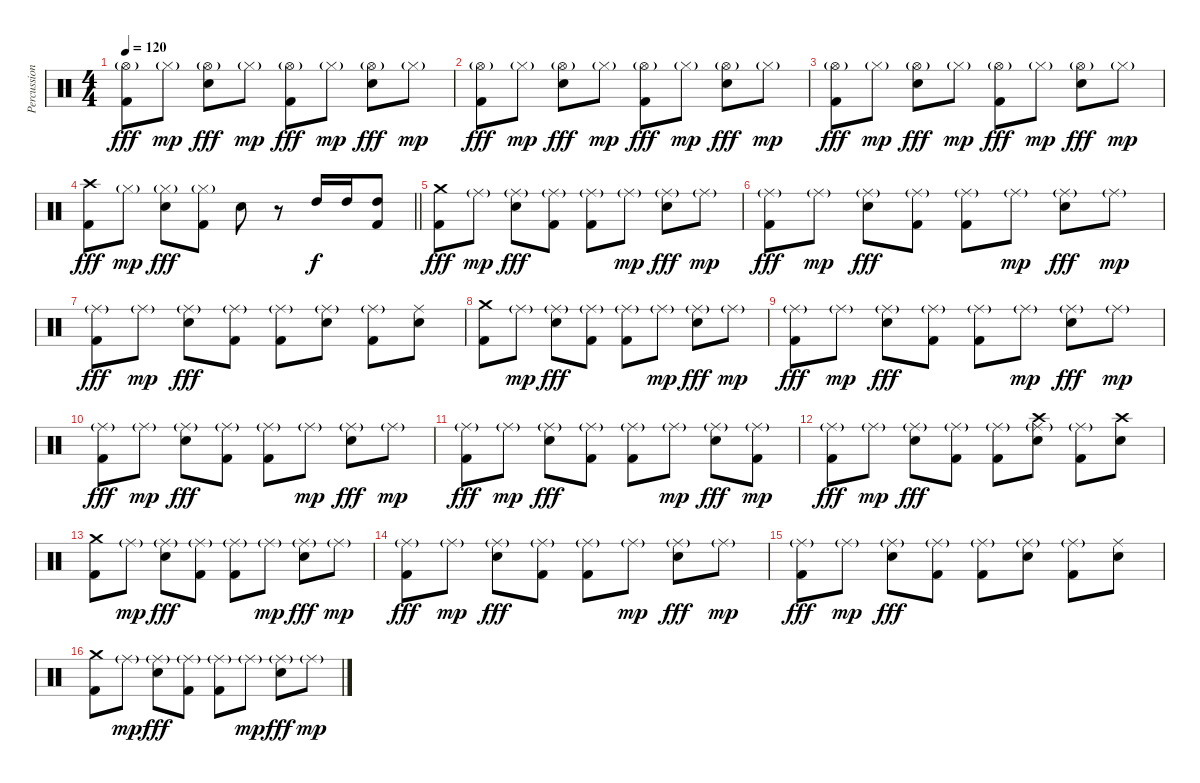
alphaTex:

\track ("Percussion" "Percussion") {instrument percussion}
\staff {score}
\articulation defaults
\ts (4 4)
\tempo 120
\clef neutral
\ks c
("Hi-Hat (open)"{g} "Kick (hit) 2").8{dy fff} "Hi-Hat (closed)"{g}.8{dy mp} ("Hi-Hat (open)"{g} "Electric Snare (hit)").8{dy fff} "Hi-Hat (closed)"{g}.8{dy mp} ("Hi-Hat (open)"{g} "Kick (hit) 2").8{dy fff} "Hi-Hat (closed)"{g}.8{dy mp} ("Hi-Hat (open)"{g} "Electric Snare (hit)").8{dy fff} "Hi-Hat (closed)"{g}.8{dy mp} |
("Hi-Hat (open)"{g} "Kick (hit) 2").8{dy fff} "Hi-Hat (closed)"{g}.8{dy mp} ("Hi-Hat (open)"{g} "Electric Snare (hit)").8{dy fff} "Hi-Hat (closed)"{g}.8{dy mp} ("Hi-Hat (open)"{g} "Kick (hit) 2").8{dy fff} "Hi-Hat (closed)"{g}.8{dy mp} ("Hi-Hat (open)"{g} "Electric Snare (hit)").8{dy fff} "Hi-Hat (closed)"{g}.8{dy mp} |
("Hi-Hat (open)"{g} "Kick (hit) 2").8{dy fff} "Hi-Hat (closed)"{g}.8{dy mp} ("Hi-Hat (open)"{g} "Electric Snare (hit)").8{dy fff} "Hi-Hat (closed)"{g}.8{dy mp} ("Hi-Hat (open)"{g} "Kick (hit) 2").8{dy fff} "Hi-Hat (closed)"{g}.8{dy mp} ("Hi-Hat (open)"{g} "Electric Snare (hit)").8{dy fff} "Hi-Hat (closed)"{g}.8{dy mp} |
\barLineRight lightlight
("Crash high (hit)" "Kick (hit) 2").8{dy fff} "Hi-Hat (closed)"{g}.8{dy mp} ("Hi-Hat (closed)"{g} "Electric Snare (hit)").8{dy fff} ("Hi-Hat (closed)"{g} "Kick (hit) 2").8 "Electric Snare (hit)".8 r.8 "High Tom (hit)".16{dy f} "High Tom (hit)".16 ("Kick (hit) 2" "High Tom (hit)").8 |
("Crash medium (hit)" "Kick (hit) 2").8{dy fff} "Ride (middle)"{g}.8{dy mp} ("Ride (middle)"{g} "Electric Snare (hit)").8{dy fff} ("Ride (middle)"{g} "Kick (hit) 2").8 ("Ride (middle)"{g} "Kick (hit) 2").8 "Ride (middle)"{g}.8{dy mp} ("Ride (middle)"{g} "Electric Snare (hit)").8{dy fff} "Ride (middle)"{g}.8{dy mp} |
("Ride (middle)"{g} "Kick (hit) 2").8{dy fff} "Ride (middle)"{g}.8{dy mp} ("Ride (middle)"{g} "Electric Snare (hit)").8{dy fff} ("Ride (middle)"{g} "Kick (hit) 2").8 ("Ride (middle)"{g} "Kick (hit) 2").8 "Ride (middle)"{g}.8{dy mp} ("Ride (middle)"{g} "Electric Snare (hit)").8{dy fff} "Ride (middle)"{g}.8{dy mp} |
("Ride (middle)"{g} "Kick (hit) 2").8{dy fff} "Ride (middle)"{g}.8{dy mp} ("Ride (middle)"{g} "Electric Snare (hit)").8{dy fff} ("Ride (middle)"{g} "Kick (hit) 2").8 ("Ride (middle)"{g} "Kick (hit) 2").8 ("Ride (middle)"{g} "Electric Snare (hit)").8 ("Ride (middle)"{g} "Kick (hit) 2").8 ("Ride (middle)" "Electric Snare (hit)").8 |
("Crash medium (hit)" "Kick (hit) 2").8 "Ride (middle)"{g}.8{dy mp} ("Ride (middle)"{g} "Electric Snare (hit)").8{dy fff} ("Ride (middle)"{g} "Kick (hit) 2").8 ("Ride (middle)"{g} "Kick (hit) 2").8 "Ride (middle)"{g}.8{dy mp} ("Ride (middle)"{g} "Electric Snare (hit)").8{dy fff} "Ride (middle)"{g}.8{dy mp} |
("Ride (middle)"{g} "Kick (hit) 2").8{dy fff} "Ride (middle)"{g}.8{dy mp} ("Ride (middle)"{g} "Electric Snare (hit)").8{dy fff} ("Ride (middle)"{g} "Kick (hit) 2").8 ("Ride (middle)"{g} "Kick (hit) 2").8 "Ride (middle)"{g}.8{dy mp} ("Ride (middle)"{g} "Electric Snare (hit)").8{dy fff} "Ride (middle)"{g}.8{dy mp} |
("Ride (middle)"{g} "Kick (hit) 2").8{dy fff} "Ride (middle)"{g}.8{dy mp} ("Ride (middle)"{g} "Electric Snare (hit)").8{dy fff} ("Ride (middle)"{g} "Kick (hit) 2").8 ("Ride (middle)"{g} "Kick (hit) 2").8 "Ride (middle)"{g}.8{dy mp} ("Ride (middle)"{g} "Electric Snare (hit)").8{dy fff} "Ride (middle)"{g}.8{dy mp} |
("Ride (middle)"{g} "Kick (hit) 2").8{dy fff} "Ride (middle)"{g}.8{dy mp} ("Ride (middle)"{g} "Electric Snare (hit)").8{dy fff} ("Ride (middle)"{g} "Kick (hit) 2").8 ("Ride (middle)"{g} "Kick (hit) 2").8 "Ride (middle)"{g}.8{dy mp} ("Ride (middle)"{g} "Electric Snare (hit)").8{dy fff} ("Ride (middle)"{g} "Kick (hit) 2").8{dy mp} |
("Ride (middle)"{g} "Kick (hit) 2").8{dy fff} "Ride (middle)"{g}.8{dy mp} ("Ride (middle)"{g} "Electric Snare (hit)").8{dy fff} ("Ride (middle)"{g} "Kick (hit) 2").8 ("Ride (middle)"{g} "Kick (hit) 2").8 ("Crash high (hit)" "Ride (middle)"{g} "Electric Snare (hit)").8 ("Ride (middle)"{g} "Kick (hit) 2").8 ("Crash high (hit)" "Electric Snare (hit)").8 |
("Crash medium (hit)" "Kick (hit) 2").8 "Ride (middle)"{g}.8{dy mp} ("Ride (middle)"{g} "Electric Snare (hit)").8{dy fff} ("Ride (middle)"{g} "Kick (hit) 2").8 ("Ride (middle)"{g} "Kick (hit) 2").8 "Ride (middle)"{g}.8{dy mp} ("Ride (middle)"{g} "Electric Snare (hit)").8{dy fff} "Ride (middle)"{g}.8{dy mp} |
("Ride (middle)"{g} "Kick (hit) 2").8{dy fff} "Ride (middle)"{g}.8{dy mp} ("Ride (middle)"{g} "Electric Snare (hit)").8{dy fff} ("Ride (middle)"{g} "Kick (hit) 2").8 ("Ride (middle)"{g} "Kick (hit) 2").8 "Ride (middle)"{g}.8{dy mp} ("Ride (middle)"{g} "Electric Snare (hit)").8{dy fff} "Ride (middle)"{g}.8{dy mp} |
("Ride (middle)"{g} "Kick (hit) 2").8{dy fff} "Ride (middle)"{g}.8{dy mp} ("Ride (middle)"{g} "Electric Snare (hit)").8{dy fff} ("Ride (middle)"{g} "Kick (hit) 2").8 ("Ride (middle)"{g} "Kick (hit) 2").8 ("Ride (middle)"{g} "Electric Snare (hit)").8 ("Ride (middle)"{g} "Kick (hit) 2").8 ("Ride (middle)" "Electric Snare (hit)").8 |
("Crash medium (hit)" "Kick (hit) 2").8 "Ride (middle)"{g}.8{dy mp} ("Ride (middle)"{g} "Electric Snare (hit)").8{dy fff} ("Ride (middle)"{g} "Kick (hit) 2").8 ("Ride (middle)"{g} "Kick (hit) 2").8 "Ride (middle)"{g}.8{dy mp} ("Ride (middle)"{g} "Electric Snare (hit)").8{dy fff} "Ride (middle)"{g}.8{dy mp}
